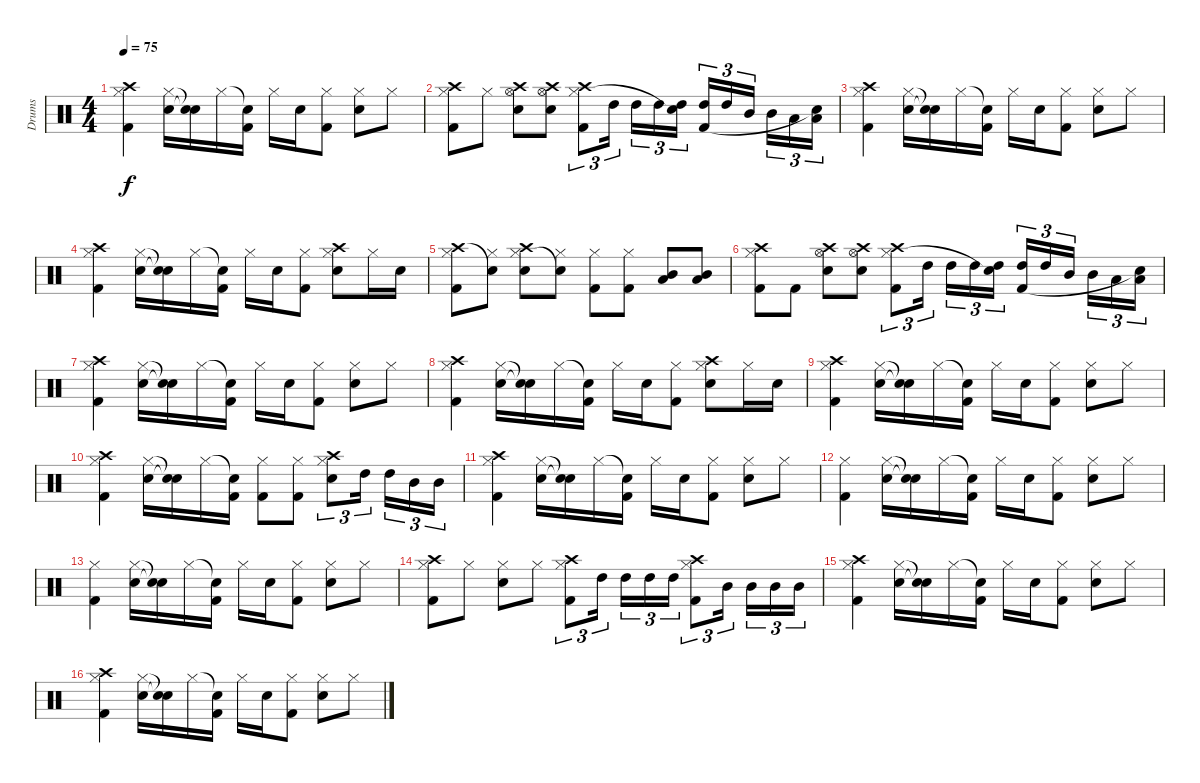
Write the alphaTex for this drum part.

\track ("Drums" "Drums") {instrument percussion}
\staff {score}
\articulation defaults
\ts (4 4)
\tempo 75
\clef neutral
\ks c
("Hi-Hat (closed)" "Kick (hit) 2" "Crash high (hit)").4{dy f} ("Hi-Hat (closed)" "Electric Snare (hit)").16 ("Snare (hit)"{t} "Snare (hit)"{t}).16 "Hi-Hat (closed)".16 ("Snare (hit)"{t} "Kick (hit) 2").16 "Hi-Hat (closed)".16 "Electric Snare (hit)".16 ("Hi-Hat (closed)" "Kick (hit) 2").8 ("Electric Snare (hit)" "Hi-Hat (closed)").8 "Hi-Hat (closed)".8 |
("Crash high (hit)" "Hi-Hat (closed)" "Kick (hit) 2").8 "Hi-Hat (closed)".8 ("Crash high (hit)" "Hi-Hat (open)" "Electric Snare (hit)").8 ("Crash high (hit)" "Hi-Hat (open)" "Electric Snare (hit)").8 ("Crash high (hit)" "Hi-Hat (closed)" "Kick (hit) 2").8{tu (3 2)} "High Tom (hit)".16{tu (3 2)} "High Tom (hit)".16{tu (3 2)} "High Tom (hit)".16{tu (3 2)} ("High Tom (hit)" "Snare (hit)"{t}).16{tu (3 2)} ("High Tom (hit)" "Kick (hit) 2").16{tu (3 2)} "High Tom (hit)".16{tu (3 2)} "Mid Tom (hit)".16{tu (3 2)} "Mid Tom (hit)".16{tu (3 2)} "Low Tom (hit)".16{tu (3 2)} ("Low Tom (hit)" "Snare (hit)"{t}).16{tu (3 2)} |
("Hi-Hat (closed)" "Kick (hit) 2" "Crash high (hit)").4 ("Hi-Hat (closed)" "Electric Snare (hit)").16 ("Snare (hit)"{t} "Snare (hit)"{t}).16 "Hi-Hat (closed)".16 ("Snare (hit)"{t} "Kick (hit) 2").16 "Hi-Hat (closed)".16 "Electric Snare (hit)".16 ("Hi-Hat (closed)" "Kick (hit) 2").8 ("Electric Snare (hit)" "Hi-Hat (closed)").8 "Hi-Hat (closed)".8 |
("Hi-Hat (closed)" "Kick (hit) 2" "Crash high (hit)").4 ("Hi-Hat (closed)" "Electric Snare (hit)").16 ("Snare (hit)"{t} "Snare (hit)"{t}).16 "Hi-Hat (closed)".16 ("Snare (hit)"{t} "Kick (hit) 2").16 "Hi-Hat (closed)".16 "Electric Snare (hit)".16 ("Hi-Hat (closed)" "Kick (hit) 2").8 ("Crash high (hit)" "Electric Snare (hit)" "Hi-Hat (closed)").8 "Hi-Hat (closed)".16 "Electric Snare (hit)".16 |
("Hi-Hat (closed)" "Crash high (hit)" "Kick (hit) 2").8 ("Hi-Hat (closed)" "Snare (hit)"{t}).8 ("Crash high (hit)" "Hi-Hat (closed)" "Electric Snare (hit)").8 ("Hi-Hat (closed)" "Snare (hit)"{t}).8 ("Hi-Hat (closed)" "Kick (hit) 2").8 ("Hi-Hat (closed)" "Kick (hit) 2").8 ("Mid Tom (hit)" "Low Tom (hit)").8 ("Low Tom (hit)" "Mid Tom (hit)").8 |
("Crash high (hit)" "Hi-Hat (closed)" "Kick (hit) 2").8 "Kick (hit) 2".8 ("Crash high (hit)" "Hi-Hat (open)" "Electric Snare (hit)").8 ("Crash high (hit)" "Hi-Hat (open)" "Electric Snare (hit)").8 ("Crash high (hit)" "Hi-Hat (closed)" "Kick (hit) 2").8{tu (3 2)} "High Tom (hit)".16{tu (3 2)} "High Tom (hit)".16{tu (3 2)} "High Tom (hit)".16{tu (3 2)} ("High Tom (hit)" "Snare (hit)"{t}).16{tu (3 2)} ("High Tom (hit)" "Kick (hit) 2").16{tu (3 2)} "High Tom (hit)".16{tu (3 2)} "Mid Tom (hit)".16{tu (3 2)} "Mid Tom (hit)".16{tu (3 2)} "Low Tom (hit)".16{tu (3 2)} ("Low Tom (hit)" "Snare (hit)"{t}).16{tu (3 2)} |
("Hi-Hat (closed)" "Kick (hit) 2" "Crash high (hit)").4 ("Hi-Hat (closed)" "Electric Snare (hit)").16 ("Snare (hit)"{t} "Snare (hit)"{t}).16 "Hi-Hat (closed)".16 ("Snare (hit)"{t} "Kick (hit) 2").16 "Hi-Hat (closed)".16 "Electric Snare (hit)".16 ("Hi-Hat (closed)" "Kick (hit) 2").8 ("Electric Snare (hit)" "Hi-Hat (closed)").8 "Hi-Hat (closed)".8 |
("Hi-Hat (closed)" "Kick (hit) 2" "Crash high (hit)").4 ("Hi-Hat (closed)" "Electric Snare (hit)").16 ("Snare (hit)"{t} "Snare (hit)"{t}).16 "Hi-Hat (closed)".16 ("Snare (hit)"{t} "Kick (hit) 2").16 "Hi-Hat (closed)".16 "Electric Snare (hit)".16 ("Hi-Hat (closed)" "Kick (hit) 2").8 ("Crash high (hit)" "Electric Snare (hit)" "Hi-Hat (closed)").8 "Hi-Hat (closed)".16 "Electric Snare (hit)".16 |
("Hi-Hat (closed)" "Kick (hit) 2" "Crash high (hit)").4 ("Hi-Hat (closed)" "Electric Snare (hit)").16 ("Snare (hit)"{t} "Snare (hit)"{t}).16 "Hi-Hat (closed)".16 ("Snare (hit)"{t} "Kick (hit) 2").16 "Hi-Hat (closed)".16 "Electric Snare (hit)".16 ("Hi-Hat (closed)" "Kick (hit) 2").8 ("Electric Snare (hit)" "Hi-Hat (closed)").8 "Hi-Hat (closed)".8 |
("Hi-Hat (closed)" "Kick (hit) 2" "Crash high (hit)").4 ("Hi-Hat (closed)" "Electric Snare (hit)").16 ("Snare (hit)"{t} "Snare (hit)"{t}).16 "Hi-Hat (closed)".16 ("Snare (hit)"{t} "Kick (hit) 2").16 ("Hi-Hat (closed)" "Kick (hit) 2").8 ("Hi-Hat (closed)" "Kick (hit) 2").8 ("Crash high (hit)" "Electric Snare (hit)" "Hi-Hat (closed)").8{tu (3 2)} "High Tom (hit)".16{tu (3 2)} "High Tom (hit)".16{tu (3 2)} "Mid Tom (hit)".16{tu (3 2)} "Mid Tom (hit)".16{tu (3 2)} |
("Hi-Hat (closed)" "Kick (hit) 2" "Crash high (hit)").4 ("Hi-Hat (closed)" "Electric Snare (hit)").16 ("Snare (hit)"{t} "Snare (hit)"{t}).16 "Hi-Hat (closed)".16 ("Snare (hit)"{t} "Kick (hit) 2").16 "Hi-Hat (closed)".16 "Electric Snare (hit)".16 ("Hi-Hat (closed)" "Kick (hit) 2").8 ("Electric Snare (hit)" "Hi-Hat (closed)").8 "Hi-Hat (closed)".8 |
("Hi-Hat (closed)" "Kick (hit) 2").4 ("Hi-Hat (closed)" "Electric Snare (hit)").16 ("Snare (hit)"{t} "Snare (hit)"{t}).16 "Hi-Hat (closed)".16 ("Snare (hit)"{t} "Kick (hit) 2").16 "Hi-Hat (closed)".16 "Electric Snare (hit)".16 ("Hi-Hat (closed)" "Kick (hit) 2").8 ("Electric Snare (hit)" "Hi-Hat (closed)").8 "Hi-Hat (closed)".8 |
("Hi-Hat (closed)" "Kick (hit) 2").4 ("Hi-Hat (closed)" "Electric Snare (hit)").16 ("Snare (hit)"{t} "Snare (hit)"{t}).16 "Hi-Hat (closed)".16 ("Snare (hit)"{t} "Kick (hit) 2").16 "Hi-Hat (closed)".16 "Electric Snare (hit)".16 ("Hi-Hat (closed)" "Kick (hit) 2").8 ("Electric Snare (hit)" "Hi-Hat (closed)").8 "Hi-Hat (closed)".8 |
("Crash high (hit)" "Kick (hit) 2" "Hi-Hat (closed)").8 "Hi-Hat (closed)".8 ("Electric Snare (hit)" "Hi-Hat (closed)").8 "Hi-Hat (closed)".8 ("Crash high (hit)" "Kick (hit) 2" "Hi-Hat (closed)").8{tu (3 2)} "High Tom (hit)".16{tu (3 2)} "High Tom (hit)".16{tu (3 2)} "High Tom (hit)".16{tu (3 2)} "High Tom (hit)".16{tu (3 2)} ("Crash high (hit)" "Kick (hit) 2" "Hi-Hat (closed)").8{tu (3 2)} "Mid Tom (hit)".16{tu (3 2)} "Mid Tom (hit)".16{tu (3 2)} "Mid Tom (hit)".16{tu (3 2)} "Mid Tom (hit)".16{tu (3 2)} |
("Hi-Hat (closed)" "Crash high (hit)" "Kick (hit) 2").4 ("Hi-Hat (closed)" "Electric Snare (hit)").16 ("Snare (hit)"{t} "Snare (hit)"{t}).16 "Hi-Hat (closed)".16 ("Snare (hit)"{t} "Kick (hit) 2").16 "Hi-Hat (closed)".16 "Electric Snare (hit)".16 ("Hi-Hat (closed)" "Kick (hit) 2").8 ("Electric Snare (hit)" "Hi-Hat (closed)").8 "Hi-Hat (closed)".8 |
("Hi-Hat (closed)" "Crash high (hit)" "Kick (hit) 2").4 ("Hi-Hat (closed)" "Electric Snare (hit)").16 ("Snare (hit)"{t} "Snare (hit)"{t}).16 "Hi-Hat (closed)".16 ("Snare (hit)"{t} "Kick (hit) 2").16 "Hi-Hat (closed)".16 "Electric Snare (hit)".16 ("Hi-Hat (closed)" "Kick (hit) 2").8 ("Electric Snare (hit)" "Hi-Hat (closed)").8 "Hi-Hat (closed)".8
